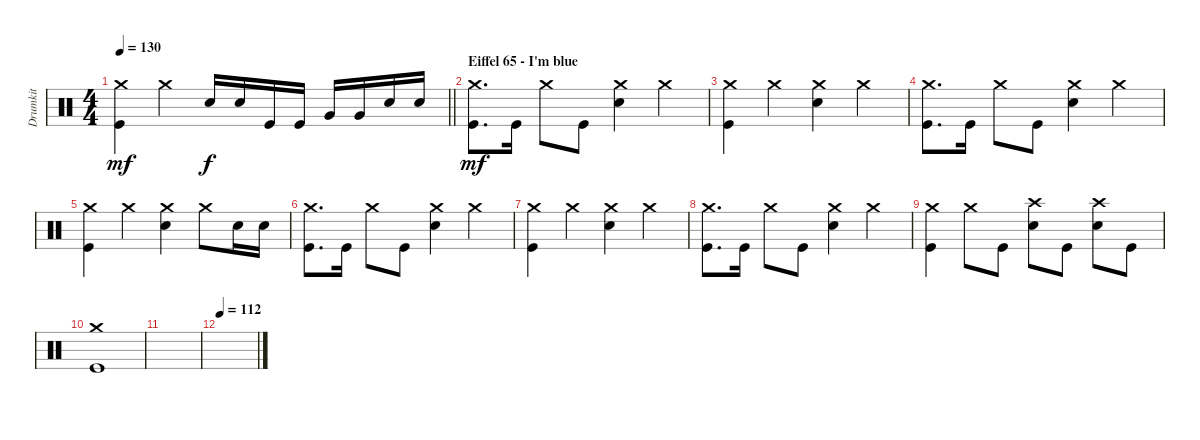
\track ("Drumkit" "Drumkit") {instrument percussion}
\staff {score}
\articulation defaults
\ts (4 4)
\tempo 130
\clef neutral
\barLineRight lightlight
\ks c
("Kick (hit)" "Crash medium (hit)").4{dy mf} "Crash medium (hit)".4 "Snare (hit) 2".16{dy f} "Snare (hit) 2".16 "Kick (hit)".16 "Kick (hit)".16 "Very Low Tom (hit)".16 "Very Low Tom (hit)".16 "Snare (hit) 2".16 "Snare (hit) 2".16 |
\section ("" "Eiffel 65 - I'm blue")
("Kick (hit)" "Crash medium (hit)").8{d dy mf} "Kick (hit)".16 "Crash medium (hit)".8 "Kick (hit)".8 ("Crash medium (hit)" "Snare (hit) 2").4 "Crash medium (hit)".4 |
("Kick (hit)" "Crash medium (hit)").4 "Crash medium (hit)".4 ("Crash medium (hit)" "Snare (hit) 2").4 "Crash medium (hit)".4 |
("Kick (hit)" "Crash medium (hit)").8{d} "Kick (hit)".16 "Crash medium (hit)".8 "Kick (hit)".8 ("Crash medium (hit)" "Snare (hit) 2").4 "Crash medium (hit)".4 |
("Kick (hit)" "Crash medium (hit)").4 "Crash medium (hit)".4 ("Crash medium (hit)" "Snare (hit) 2").4 "Crash medium (hit)".8 "Snare (hit) 2".16 "Snare (hit) 2".16 |
("Kick (hit)" "Crash medium (hit)").8{d} "Kick (hit)".16 "Crash medium (hit)".8 "Kick (hit)".8 ("Crash medium (hit)" "Snare (hit) 2").4 "Crash medium (hit)".4 |
("Kick (hit)" "Crash medium (hit)").4 "Crash medium (hit)".4 ("Crash medium (hit)" "Snare (hit) 2").4 "Crash medium (hit)".4 |
("Kick (hit)" "Crash medium (hit)").8{d} "Kick (hit)".16 "Crash medium (hit)".8 "Kick (hit)".8 ("Crash medium (hit)" "Snare (hit) 2").4 "Crash medium (hit)".4 |
("Kick (hit)" "Crash medium (hit)").4 "Crash medium (hit)".8 "Kick (hit)".8 ("Snare (hit) 2" "Crash high (hit)").8 "Kick (hit)".8 ("Snare (hit) 2" "Crash high (hit)").8 "Kick (hit)".8 |
("Crash medium (hit)" "Kick (hit)").1 |
|
\tempo 112
